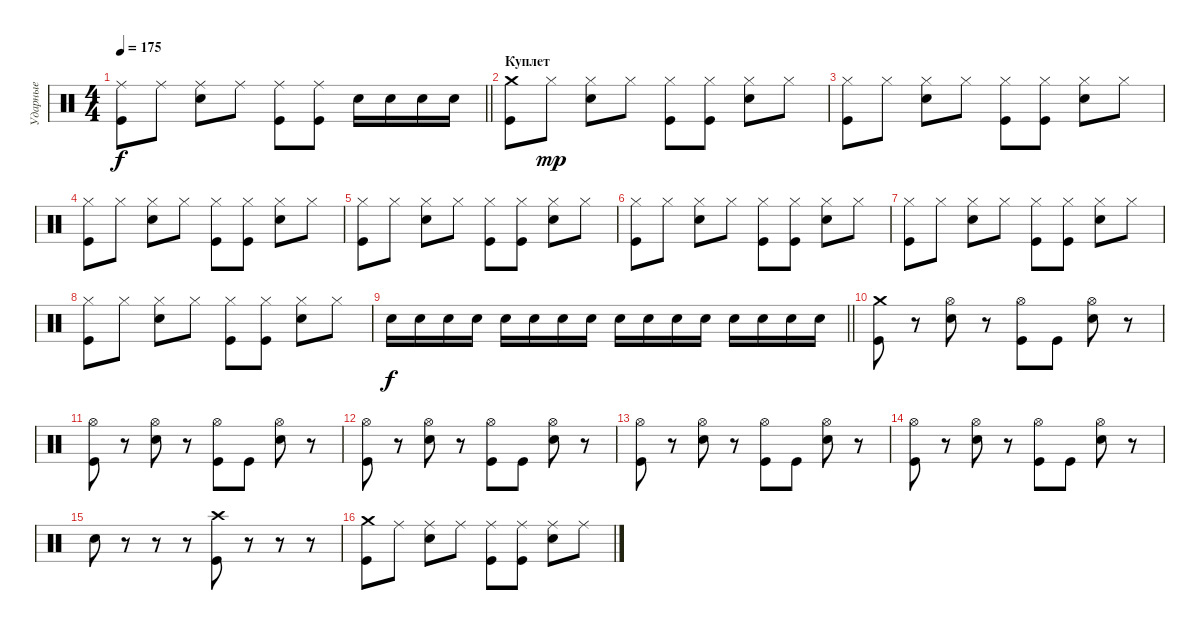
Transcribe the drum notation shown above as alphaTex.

\track ("Ударные" "Ударные") {instrument percussion}
\staff {score}
\articulation defaults
\ts (4 4)
\tempo 175
\clef neutral
\barLineRight lightlight
\ks c
("Ride (middle)" "Kick (hit)").8{dy f} "Ride (middle)".8 ("Ride (middle)" "Electric Snare (hit)").8 "Ride (middle)".8 ("Ride (middle)" "Kick (hit)").8 ("Ride (middle)" "Kick (hit)").8 "Electric Snare (hit)".16 "Electric Snare (hit)".16 "Electric Snare (hit)".16 "Electric Snare (hit)".16 |
\section ("" "Куплет")
("Crash medium (hit)" "Kick (hit)").8 "Hi-Hat (closed)".8{dy mp} ("Hi-Hat (closed)" "Electric Snare (hit)").8 "Hi-Hat (closed)".8 ("Hi-Hat (closed)" "Kick (hit)").8 ("Hi-Hat (closed)" "Kick (hit)").8 ("Hi-Hat (closed)" "Electric Snare (hit)").8 "Hi-Hat (closed)".8 |
("Hi-Hat (closed)" "Kick (hit)").8 "Hi-Hat (closed)".8 ("Hi-Hat (closed)" "Electric Snare (hit)").8 "Hi-Hat (closed)".8 ("Hi-Hat (closed)" "Kick (hit)").8 ("Hi-Hat (closed)" "Kick (hit)").8 ("Hi-Hat (closed)" "Electric Snare (hit)").8 "Hi-Hat (closed)".8 |
("Hi-Hat (closed)" "Kick (hit)").8 "Hi-Hat (closed)".8 ("Hi-Hat (closed)" "Electric Snare (hit)").8 "Hi-Hat (closed)".8 ("Hi-Hat (closed)" "Kick (hit)").8 ("Hi-Hat (closed)" "Kick (hit)").8 ("Hi-Hat (closed)" "Electric Snare (hit)").8 "Hi-Hat (closed)".8 |
("Hi-Hat (closed)" "Kick (hit)").8 "Hi-Hat (closed)".8 ("Hi-Hat (closed)" "Electric Snare (hit)").8 "Hi-Hat (closed)".8 ("Hi-Hat (closed)" "Kick (hit)").8 ("Hi-Hat (closed)" "Kick (hit)").8 ("Hi-Hat (closed)" "Electric Snare (hit)").8 "Hi-Hat (closed)".8 |
("Hi-Hat (closed)" "Kick (hit)").8 "Hi-Hat (closed)".8 ("Hi-Hat (closed)" "Electric Snare (hit)").8 "Hi-Hat (closed)".8 ("Hi-Hat (closed)" "Kick (hit)").8 ("Hi-Hat (closed)" "Kick (hit)").8 ("Hi-Hat (closed)" "Electric Snare (hit)").8 "Hi-Hat (closed)".8 |
("Hi-Hat (closed)" "Kick (hit)").8 "Hi-Hat (closed)".8 ("Hi-Hat (closed)" "Electric Snare (hit)").8 "Hi-Hat (closed)".8 ("Hi-Hat (closed)" "Kick (hit)").8 ("Hi-Hat (closed)" "Kick (hit)").8 ("Hi-Hat (closed)" "Electric Snare (hit)").8 "Hi-Hat (closed)".8 |
("Hi-Hat (closed)" "Kick (hit)").8 "Hi-Hat (closed)".8 ("Hi-Hat (closed)" "Electric Snare (hit)").8 "Hi-Hat (closed)".8 ("Hi-Hat (closed)" "Kick (hit)").8 ("Hi-Hat (closed)" "Kick (hit)").8 ("Hi-Hat (closed)" "Electric Snare (hit)").8 "Hi-Hat (closed)".8 |
\barLineRight lightlight "Electric Snare (hit)".16{dy f} "Electric Snare (hit)".16 "Electric Snare (hit)".16 "Electric Snare (hit)".16 "Electric Snare (hit)".16 "Electric Snare (hit)".16 "Electric Snare (hit)".16 "Electric Snare (hit)".16 "Electric Snare (hit)".16 "Electric Snare (hit)".16 "Electric Snare (hit)".16 "Electric Snare (hit)".16 "Electric Snare (hit)".16 "Electric Snare (hit)".16 "Electric Snare (hit)".16 "Electric Snare (hit)".16
|
\section ("" " ")
("Crash medium (hit)" "Kick (hit)").8 r.8 ("Hi-Hat (open)" "Electric Snare (hit)").8 r.8 ("Hi-Hat (open)" "Kick (hit)").8 "Kick (hit)".8 ("Hi-Hat (open)" "Electric Snare (hit)").8 r.8 |
("Hi-Hat (open)" "Kick (hit)").8 r.8 ("Hi-Hat (open)" "Electric Snare (hit)").8 r.8 ("Hi-Hat (open)" "Kick (hit)").8 "Kick (hit)".8 ("Hi-Hat (open)" "Electric Snare (hit)").8 r.8 |
("Hi-Hat (open)" "Kick (hit)").8 r.8 ("Hi-Hat (open)" "Electric Snare (hit)").8 r.8 ("Hi-Hat (open)" "Kick (hit)").8 "Kick (hit)".8 ("Hi-Hat (open)" "Electric Snare (hit)").8 r.8 |
("Hi-Hat (open)" "Kick (hit)").8 r.8 ("Hi-Hat (open)" "Electric Snare (hit)").8 r.8 ("Hi-Hat (open)" "Kick (hit)").8 "Kick (hit)".8 ("Hi-Hat (open)" "Electric Snare (hit)").8 r.8 |
("Hi-Hat (open)" "Kick (hit)").8 r.8 ("Hi-Hat (open)" "Electric Snare (hit)").8 r.8 ("Hi-Hat (open)" "Kick (hit)").8 "Kick (hit)".8 ("Hi-Hat (open)" "Electric Snare (hit)").8 r.8 |
"Electric Snare (hit)".8 r.8 r.8 r.8 ("Crash high (hit)" "Kick (hit)").8 r.8 r.8 r.8 |
("Crash medium (hit)" "Kick (hit)").8 "Ride (middle)".8 ("Ride (middle)" "Electric Snare (hit)").8 "Ride (middle)".8 ("Ride (middle)" "Kick (hit)").8 ("Ride (middle)" "Kick (hit)").8 ("Ride (middle)" "Electric Snare (hit)").8 "Ride (middle)".8
